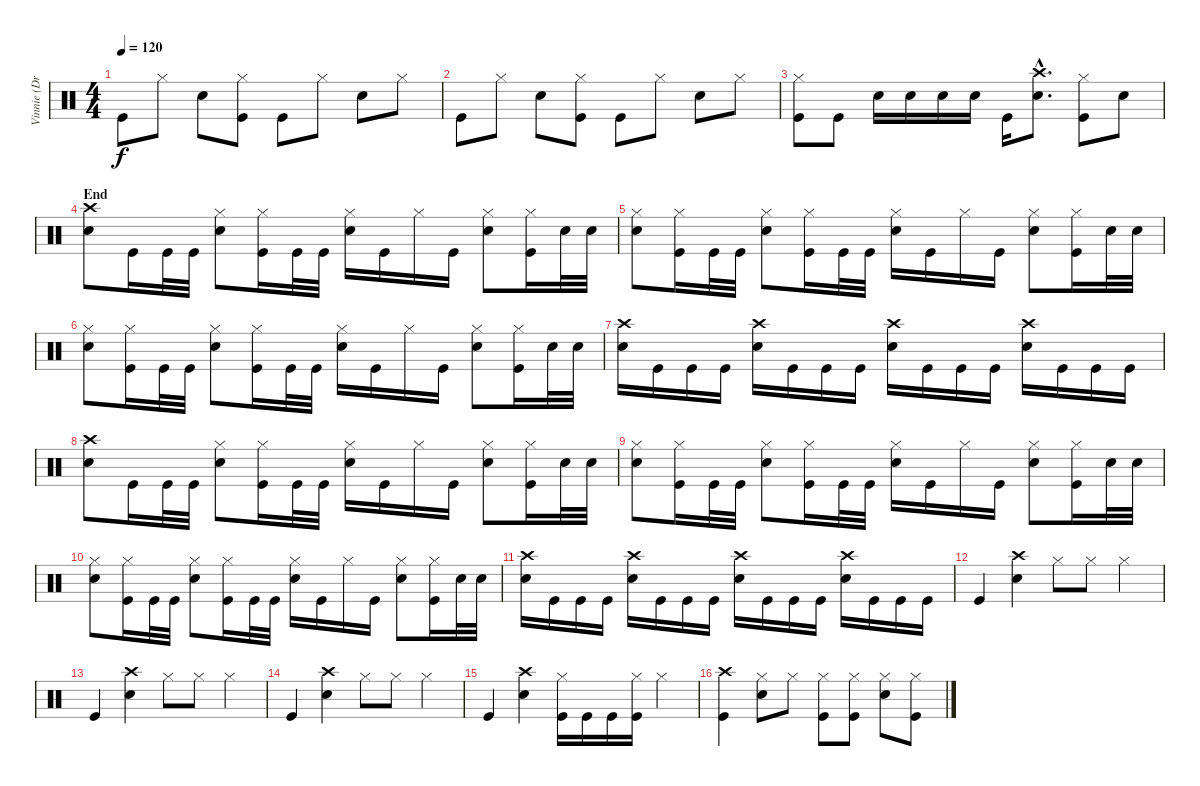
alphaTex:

\track ("Vinnie (Drums)" "Vinnie (Dr") {instrument percussion}
\staff {score}
\articulation defaults
\ts (4 4)
\tempo 120
\clef neutral
\ks c "Kick (hit)".8{dy f} "Hi-Hat (closed)".8 "Snare (hit) 2".8
("Hi-Hat (closed)" "Kick (hit)").8 "Kick (hit)".8 "Hi-Hat (closed)".8 "Snare (hit) 2".8 "Hi-Hat (closed)".8 |
"Kick (hit)".8 "Hi-Hat (closed)".8 "Snare (hit) 2".8 ("Hi-Hat (closed)" "Kick (hit)").8 "Kick (hit)".8 "Hi-Hat (closed)".8 "Snare (hit) 2".8 "Hi-Hat (closed)".8 |
("Hi-Hat (closed)" "Kick (hit)").8 "Kick (hit)".8 "Snare (hit) 2".16 "Snare (hit) 2".16 "Snare (hit) 2".16 "Snare (hit) 2".16 "Kick (hit)".16 ("Crash high (hit)"{hac} "Snare (hit) 2"{hac}).8{d} ("Hi-Hat (closed)" "Kick (hit)").8 "Snare (hit) 2".8 |
\section ("" "End")
("Crash high (hit)" "Snare (hit) 2").8 "Kick (hit)".16 "Kick (hit)".32 "Kick (hit)".32 ("Hi-Hat (closed)" "Snare (hit) 2").8 ("Hi-Hat (closed)" "Kick (hit)").16 "Kick (hit)".32 "Kick (hit)".32 ("Hi-Hat (closed)" "Snare (hit) 2").16 "Kick (hit)".16 "Hi-Hat (closed)".16 "Kick (hit)".16 ("Hi-Hat (closed)" "Snare (hit) 2").8 ("Hi-Hat (closed)" "Kick (hit)").16 "Snare (hit) 2".32 "Snare (hit) 2".32 |
("Hi-Hat (closed)" "Snare (hit) 2").8 ("Hi-Hat (closed)" "Kick (hit)").16 "Kick (hit)".32 "Kick (hit)".32 ("Hi-Hat (closed)" "Snare (hit) 2").8 ("Hi-Hat (closed)" "Kick (hit)").16 "Kick (hit)".32 "Kick (hit)".32 ("Hi-Hat (closed)" "Snare (hit) 2").16 "Kick (hit)".16 "Hi-Hat (closed)".16 "Kick (hit)".16 ("Hi-Hat (closed)" "Snare (hit) 2").8 ("Hi-Hat (closed)" "Kick (hit)").16 "Snare (hit) 2".32 "Snare (hit) 2".32 |
("Hi-Hat (closed)" "Snare (hit) 2").8 ("Hi-Hat (closed)" "Kick (hit)").16 "Kick (hit)".32 "Kick (hit)".32 ("Hi-Hat (closed)" "Snare (hit) 2").8 ("Hi-Hat (closed)" "Kick (hit)").16 "Kick (hit)".32 "Kick (hit)".32 ("Hi-Hat (closed)" "Snare (hit) 2").16 "Kick (hit)".16 "Hi-Hat (closed)".16 "Kick (hit)".16 ("Hi-Hat (closed)" "Snare (hit) 2").8 ("Hi-Hat (closed)" "Kick (hit)").16 "Snare (hit) 2".32 "Snare (hit) 2".32 |
("Crash high (hit)" "Snare (hit) 2").16 "Kick (hit)".16 "Kick (hit)".16 "Kick (hit)".16 ("Crash high (hit)" "Snare (hit) 2").16 "Kick (hit)".16 "Kick (hit)".16 "Kick (hit)".16 ("Crash high (hit)" "Snare (hit) 2").16 "Kick (hit)".16 "Kick (hit)".16 "Kick (hit)".16 ("Crash high (hit)" "Snare (hit) 2").16 "Kick (hit)".16 "Kick (hit)".16 "Kick (hit)".16 |
("Crash high (hit)" "Snare (hit) 2").8 "Kick (hit)".16 "Kick (hit)".32 "Kick (hit)".32 ("Hi-Hat (closed)" "Snare (hit) 2").8 ("Hi-Hat (closed)" "Kick (hit)").16 "Kick (hit)".32 "Kick (hit)".32 ("Hi-Hat (closed)" "Snare (hit) 2").16 "Kick (hit)".16 "Hi-Hat (closed)".16 "Kick (hit)".16 ("Hi-Hat (closed)" "Snare (hit) 2").8 ("Hi-Hat (closed)" "Kick (hit)").16 "Snare (hit) 2".32 "Snare (hit) 2".32 |
("Hi-Hat (closed)" "Snare (hit) 2").8 ("Hi-Hat (closed)" "Kick (hit)").16 "Kick (hit)".32 "Kick (hit)".32 ("Hi-Hat (closed)" "Snare (hit) 2").8 ("Hi-Hat (closed)" "Kick (hit)").16 "Kick (hit)".32 "Kick (hit)".32 ("Hi-Hat (closed)" "Snare (hit) 2").16 "Kick (hit)".16 "Hi-Hat (closed)".16 "Kick (hit)".16 ("Hi-Hat (closed)" "Snare (hit) 2").8 ("Hi-Hat (closed)" "Kick (hit)").16 "Snare (hit) 2".32 "Snare (hit) 2".32 |
("Hi-Hat (closed)" "Snare (hit) 2").8 ("Hi-Hat (closed)" "Kick (hit)").16 "Kick (hit)".32 "Kick (hit)".32 ("Hi-Hat (closed)" "Snare (hit) 2").8 ("Hi-Hat (closed)" "Kick (hit)").16 "Kick (hit)".32 "Kick (hit)".32 ("Hi-Hat (closed)" "Snare (hit) 2").16 "Kick (hit)".16 "Hi-Hat (closed)".16 "Kick (hit)".16 ("Hi-Hat (closed)" "Snare (hit) 2").8 ("Hi-Hat (closed)" "Kick (hit)").16 "Snare (hit) 2".32 "Snare (hit) 2".32 |
("Crash high (hit)" "Snare (hit) 2").16 "Kick (hit)".16 "Kick (hit)".16 "Kick (hit)".16 ("Crash high (hit)" "Snare (hit) 2").16 "Kick (hit)".16 "Kick (hit)".16 "Kick (hit)".16 ("Crash high (hit)" "Snare (hit) 2").16 "Kick (hit)".16 "Kick (hit)".16 "Kick (hit)".16 ("Crash high (hit)" "Snare (hit) 2").16 "Kick (hit)".16 "Kick (hit)".16 "Kick (hit)".16 |
"Kick (hit)".4 ("Crash high (hit)" "Snare (hit) 2").4 "Hi-Hat (closed)".8 "Hi-Hat (closed)".8 "Hi-Hat (closed)".4 |
"Kick (hit)".4 ("Crash high (hit)" "Snare (hit) 2").4 "Hi-Hat (closed)".8 "Hi-Hat (closed)".8 "Hi-Hat (closed)".4 |
"Kick (hit)".4 ("Crash high (hit)" "Snare (hit) 2").4 "Hi-Hat (closed)".8 "Hi-Hat (closed)".8 "Hi-Hat (closed)".4 |
"Kick (hit)".4 ("Crash high (hit)" "Snare (hit) 2").4 ("Hi-Hat (closed)" "Kick (hit)").16 "Kick (hit)".16 "Kick (hit)".16 ("Hi-Hat (closed)" "Kick (hit)").16 "Hi-Hat (closed)".4 |
("Crash high (hit)" "Kick (hit)").4 ("Hi-Hat (closed)" "Snare (hit) 2").8 "Hi-Hat (closed)".8 ("Hi-Hat (closed)" "Kick (hit)").8 ("Hi-Hat (closed)" "Kick (hit)").8 ("Hi-Hat (closed)" "Snare (hit) 2").8 ("Hi-Hat (closed)" "Kick (hit)").8
